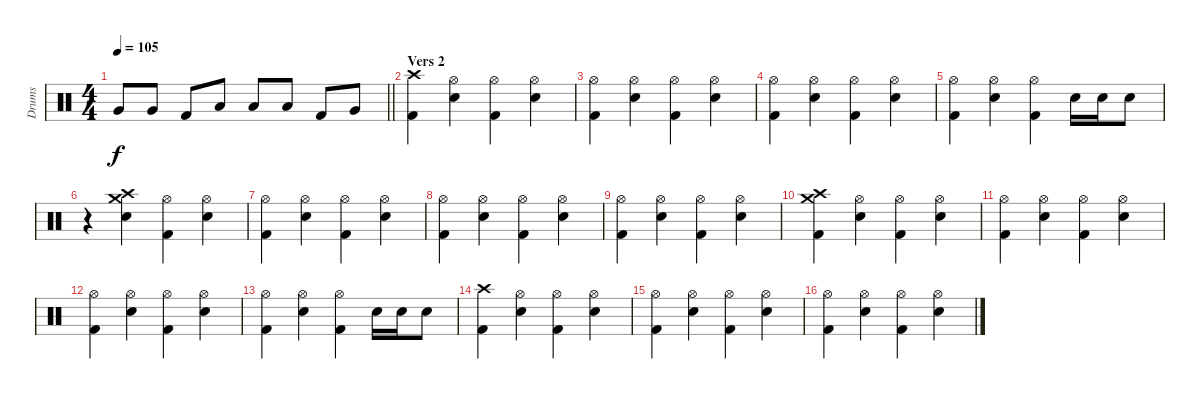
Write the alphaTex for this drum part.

\track ("Drums" "Drums") {instrument percussion}
\staff {score}
\articulation defaults
\ts (4 4)
\tempo 105
\clef neutral
\barLineRight lightlight
\ks c "Very Low Tom (hit)".8{dy f} "Very Low Tom (hit)".8 "Kick (hit) 2".8 "Low Floor Tom (hit)".8 "Low Floor Tom (hit)".8 "Low Floor Tom (hit)".8 "Kick (hit) 2".8 "Very Low Tom (hit)".8
|
\section ("" "Vers 2")
("Crash high (hit)" "Kick (hit) 2").4 ("Hi-Hat (open)" "Snare (hit) 2").4 ("Hi-Hat (open)" "Kick (hit) 2").4 ("Hi-Hat (open)" "Snare (hit) 2").4 |
("Hi-Hat (open)" "Kick (hit) 2").4 ("Hi-Hat (open)" "Snare (hit) 2").4 ("Hi-Hat (open)" "Kick (hit) 2").4 ("Hi-Hat (open)" "Snare (hit) 2").4 |
("Hi-Hat (open)" "Kick (hit) 2").4 ("Hi-Hat (open)" "Snare (hit) 2").4 ("Hi-Hat (open)" "Kick (hit) 2").4 ("Hi-Hat (open)" "Snare (hit) 2").4 |
("Hi-Hat (open)" "Kick (hit) 2").4 ("Hi-Hat (open)" "Snare (hit) 2").4 ("Hi-Hat (open)" "Kick (hit) 2").4 "Snare (hit) 2".16 "Snare (hit) 2".16 "Snare (hit) 2".8 |
r.4 ("Crash medium (hit)" "Crash high (hit)" "Snare (hit) 2").4 ("Hi-Hat (open)" "Kick (hit) 2").4 ("Hi-Hat (open)" "Snare (hit) 2").4 |
("Hi-Hat (open)" "Kick (hit) 2").4 ("Hi-Hat (open)" "Snare (hit) 2").4 ("Hi-Hat (open)" "Kick (hit) 2").4 ("Hi-Hat (open)" "Snare (hit) 2").4 |
("Hi-Hat (open)" "Kick (hit) 2").4 ("Hi-Hat (open)" "Snare (hit) 2").4 ("Hi-Hat (open)" "Kick (hit) 2").4 ("Hi-Hat (open)" "Snare (hit) 2").4 |
("Hi-Hat (open)" "Kick (hit) 2").4 ("Hi-Hat (open)" "Snare (hit) 2").4 ("Hi-Hat (open)" "Kick (hit) 2").4 ("Hi-Hat (open)" "Snare (hit) 2").4 |
("Crash medium (hit)" "Crash high (hit)" "Kick (hit) 2").4 ("Hi-Hat (open)" "Snare (hit) 2").4 ("Hi-Hat (open)" "Kick (hit) 2").4 ("Hi-Hat (open)" "Snare (hit) 2").4 |
("Hi-Hat (open)" "Kick (hit) 2").4 ("Hi-Hat (open)" "Snare (hit) 2").4 ("Hi-Hat (open)" "Kick (hit) 2").4 ("Hi-Hat (open)" "Snare (hit) 2").4 |
("Hi-Hat (open)" "Kick (hit) 2").4 ("Hi-Hat (open)" "Snare (hit) 2").4 ("Hi-Hat (open)" "Kick (hit) 2").4 ("Hi-Hat (open)" "Snare (hit) 2").4 |
("Hi-Hat (open)" "Kick (hit) 2").4 ("Hi-Hat (open)" "Snare (hit) 2").4 ("Hi-Hat (open)" "Kick (hit) 2").4 "Snare (hit) 2".16 "Snare (hit) 2".16 "Snare (hit) 2".8 |
("Crash high (hit)" "Kick (hit) 2").4 ("Hi-Hat (open)" "Snare (hit) 2").4 ("Hi-Hat (open)" "Kick (hit) 2").4 ("Hi-Hat (open)" "Snare (hit) 2").4 |
("Hi-Hat (open)" "Kick (hit) 2").4 ("Hi-Hat (open)" "Snare (hit) 2").4 ("Hi-Hat (open)" "Kick (hit) 2").4 ("Hi-Hat (open)" "Snare (hit) 2").4 |
("Hi-Hat (open)" "Kick (hit) 2").4 ("Hi-Hat (open)" "Snare (hit) 2").4 ("Hi-Hat (open)" "Kick (hit) 2").4 ("Hi-Hat (open)" "Snare (hit) 2").4
